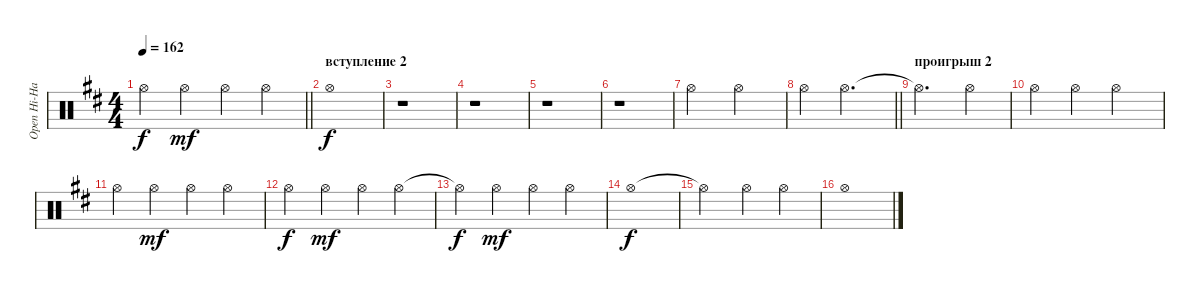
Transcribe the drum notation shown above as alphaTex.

\track ("Open Hi-Hat" "Open Hi-Ha") {instrument percussion}
\staff {score}
\articulation defaults
\ts (4 4)
\tempo 162
\clef neutral
\barLineRight lightlight
\ks bminor "Hi-Hat (open)".4{dy f} "Hi-Hat (open)".4{dy mf} "Hi-Hat (open)".4 "Hi-Hat (open)".4
|
\section ("" "вступление 2")
"Hi-Hat (open)".1{dy f} |
r.1 |
r.1 |
r.1 |
r.1 |
"Hi-Hat (open)".2 "Hi-Hat (open)".2 |
\barLineRight lightlight "Hi-Hat (open)".4 "Hi-Hat (open)".2{d}
|
\section ("" "проигрыш 2")
"Hi-Hat (open)"{t}.2{d} "Hi-Hat (open)".4 |
"Hi-Hat (open)".4 "Hi-Hat (open)".4 "Hi-Hat (open)".2 |
"Hi-Hat (open)".4 "Hi-Hat (open)".4{dy mf} "Hi-Hat (open)".4 "Hi-Hat (open)".4 |
"Hi-Hat (open)".4{dy f} "Hi-Hat (open)".4{dy mf} "Hi-Hat (open)".4 "Hi-Hat (open)".4 |
"Hi-Hat (open)"{t}.4{dy f} "Hi-Hat (open)".4{dy mf} "Hi-Hat (open)".4 "Hi-Hat (open)".4 |
"Hi-Hat (open)".1{dy f} |
"Hi-Hat (open)"{t}.2 "Hi-Hat (open)".4 "Hi-Hat (open)".4 |
"Hi-Hat (open)".1
